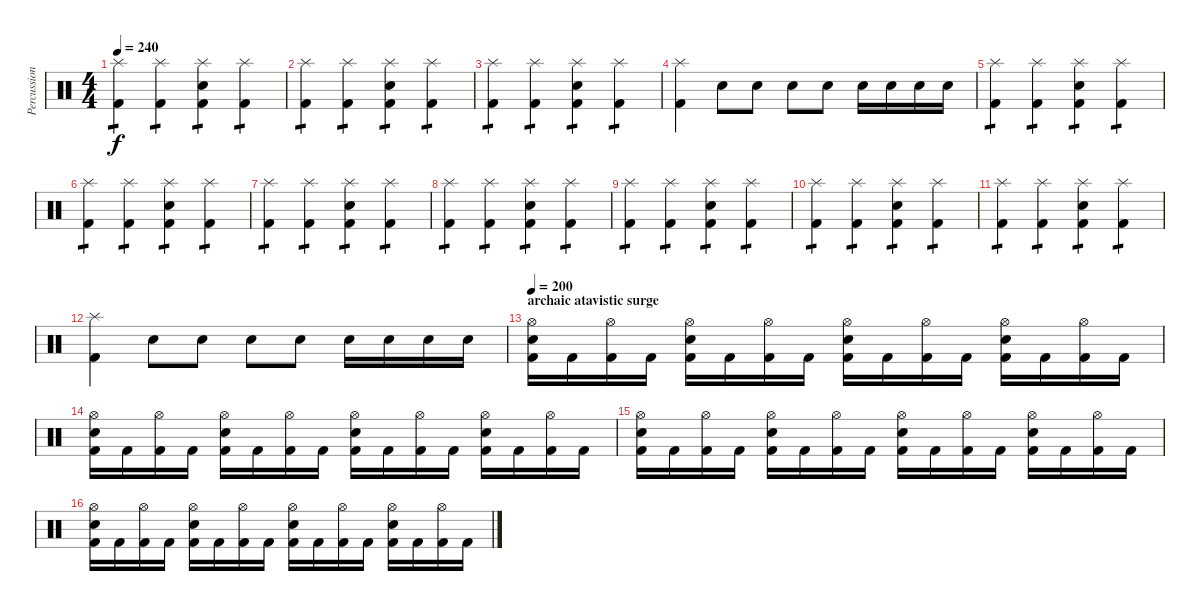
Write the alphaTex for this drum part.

\track ("Percussions" "Percussion") {instrument percussion}
\staff {score}
\articulation defaults
\ts (4 4)
\tempo 240
\clef neutral
\ks c
("Splash (hit)" "Kick (hit) 2").4{tp 1 dy f} ("Splash (hit)" "Kick (hit) 2").4{tp 1} ("Splash (hit)" "Electric Snare (hit)" "Kick (hit) 2").4{tp 1} ("Splash (hit)" "Kick (hit) 2").4{tp 1} |
("Splash (hit)" "Kick (hit) 2").4{tp 1} ("Splash (hit)" "Kick (hit) 2").4{tp 1} ("Splash (hit)" "Electric Snare (hit)" "Kick (hit) 2").4{tp 1} ("Splash (hit)" "Kick (hit) 2").4{tp 1} |
("Splash (hit)" "Kick (hit) 2").4{tp 1} ("Splash (hit)" "Kick (hit) 2").4{tp 1} ("Splash (hit)" "Electric Snare (hit)" "Kick (hit) 2").4{tp 1} ("Splash (hit)" "Kick (hit) 2").4{tp 1} |
("Splash (hit)" "Kick (hit) 2").4 "Electric Snare (hit)".8 "Electric Snare (hit)".8 "Electric Snare (hit)".8 "Electric Snare (hit)".8 "Electric Snare (hit)".16 "Electric Snare (hit)".16 "Electric Snare (hit)".16 "Electric Snare (hit)".16 |
("Splash (hit)" "Kick (hit) 2").4{tp 1} ("Splash (hit)" "Kick (hit) 2").4{tp 1} ("Splash (hit)" "Electric Snare (hit)" "Kick (hit) 2").4{tp 1} ("Splash (hit)" "Kick (hit) 2").4{tp 1} |
("Splash (hit)" "Kick (hit) 2").4{tp 1} ("Splash (hit)" "Kick (hit) 2").4{tp 1} ("Splash (hit)" "Electric Snare (hit)" "Kick (hit) 2").4{tp 1} ("Splash (hit)" "Kick (hit) 2").4{tp 1} |
("Splash (hit)" "Kick (hit) 2").4{tp 1} ("Splash (hit)" "Kick (hit) 2").4{tp 1} ("Splash (hit)" "Electric Snare (hit)" "Kick (hit) 2").4{tp 1} ("Splash (hit)" "Kick (hit) 2").4{tp 1} |
("Splash (hit)" "Kick (hit) 2").4{tp 1} ("Splash (hit)" "Kick (hit) 2").4{tp 1} ("Splash (hit)" "Electric Snare (hit)" "Kick (hit) 2").4{tp 1} ("Splash (hit)" "Kick (hit) 2").4{tp 1} |
("Splash (hit)" "Kick (hit) 2").4{tp 1} ("Splash (hit)" "Kick (hit) 2").4{tp 1} ("Splash (hit)" "Electric Snare (hit)" "Kick (hit) 2").4{tp 1} ("Splash (hit)" "Kick (hit) 2").4{tp 1} |
("Splash (hit)" "Kick (hit) 2").4{tp 1} ("Splash (hit)" "Kick (hit) 2").4{tp 1} ("Splash (hit)" "Electric Snare (hit)" "Kick (hit) 2").4{tp 1} ("Splash (hit)" "Kick (hit) 2").4{tp 1} |
("Splash (hit)" "Kick (hit) 2").4{tp 1} ("Splash (hit)" "Kick (hit) 2").4{tp 1} ("Splash (hit)" "Electric Snare (hit)" "Kick (hit) 2").4{tp 1} ("Splash (hit)" "Kick (hit) 2").4{tp 1} |
("Splash (hit)" "Kick (hit) 2").4 "Electric Snare (hit)".8 "Electric Snare (hit)".8 "Electric Snare (hit)".8 "Electric Snare (hit)".8 "Electric Snare (hit)".16 "Electric Snare (hit)".16 "Electric Snare (hit)".16 "Electric Snare (hit)".16 |
\section ("" "archaic atavistic surge")
\tempo 200
("Hi-Hat (open)" "Electric Snare (hit)" "Kick (hit) 2").16 "Kick (hit) 2".16 ("Hi-Hat (open)" "Kick (hit) 2").16 "Kick (hit) 2".16 ("Hi-Hat (open)" "Electric Snare (hit)" "Kick (hit) 2").16 "Kick (hit) 2".16 ("Hi-Hat (open)" "Kick (hit) 2").16 "Kick (hit) 2".16 ("Hi-Hat (open)" "Electric Snare (hit)" "Kick (hit) 2").16 "Kick (hit) 2".16 ("Hi-Hat (open)" "Kick (hit) 2").16 "Kick (hit) 2".16 ("Hi-Hat (open)" "Electric Snare (hit)" "Kick (hit) 2").16 "Kick (hit) 2".16 ("Hi-Hat (open)" "Kick (hit) 2").16 "Kick (hit) 2".16 |
("Hi-Hat (open)" "Electric Snare (hit)" "Kick (hit) 2").16 "Kick (hit) 2".16 ("Hi-Hat (open)" "Kick (hit) 2").16 "Kick (hit) 2".16 ("Hi-Hat (open)" "Electric Snare (hit)" "Kick (hit) 2").16 "Kick (hit) 2".16 ("Hi-Hat (open)" "Kick (hit) 2").16 "Kick (hit) 2".16 ("Hi-Hat (open)" "Electric Snare (hit)" "Kick (hit) 2").16 "Kick (hit) 2".16 ("Hi-Hat (open)" "Kick (hit) 2").16 "Kick (hit) 2".16 ("Hi-Hat (open)" "Electric Snare (hit)" "Kick (hit) 2").16 "Kick (hit) 2".16 ("Hi-Hat (open)" "Kick (hit) 2").16 "Kick (hit) 2".16 |
("Hi-Hat (open)" "Electric Snare (hit)" "Kick (hit) 2").16 "Kick (hit) 2".16 ("Hi-Hat (open)" "Kick (hit) 2").16 "Kick (hit) 2".16 ("Hi-Hat (open)" "Electric Snare (hit)" "Kick (hit) 2").16 "Kick (hit) 2".16 ("Hi-Hat (open)" "Kick (hit) 2").16 "Kick (hit) 2".16 ("Hi-Hat (open)" "Electric Snare (hit)" "Kick (hit) 2").16 "Kick (hit) 2".16 ("Hi-Hat (open)" "Kick (hit) 2").16 "Kick (hit) 2".16 ("Hi-Hat (open)" "Electric Snare (hit)" "Kick (hit) 2").16 "Kick (hit) 2".16 ("Hi-Hat (open)" "Kick (hit) 2").16 "Kick (hit) 2".16 |
("Hi-Hat (open)" "Electric Snare (hit)" "Kick (hit) 2").16 "Kick (hit) 2".16 ("Hi-Hat (open)" "Kick (hit) 2").16 "Kick (hit) 2".16 ("Hi-Hat (open)" "Electric Snare (hit)" "Kick (hit) 2").16 "Kick (hit) 2".16 ("Hi-Hat (open)" "Kick (hit) 2").16 "Kick (hit) 2".16 ("Hi-Hat (open)" "Electric Snare (hit)" "Kick (hit) 2").16 "Kick (hit) 2".16 ("Hi-Hat (open)" "Kick (hit) 2").16 "Kick (hit) 2".16 ("Hi-Hat (open)" "Electric Snare (hit)" "Kick (hit) 2").16 "Kick (hit) 2".16 ("Hi-Hat (open)" "Kick (hit) 2").16 "Kick (hit) 2".16
